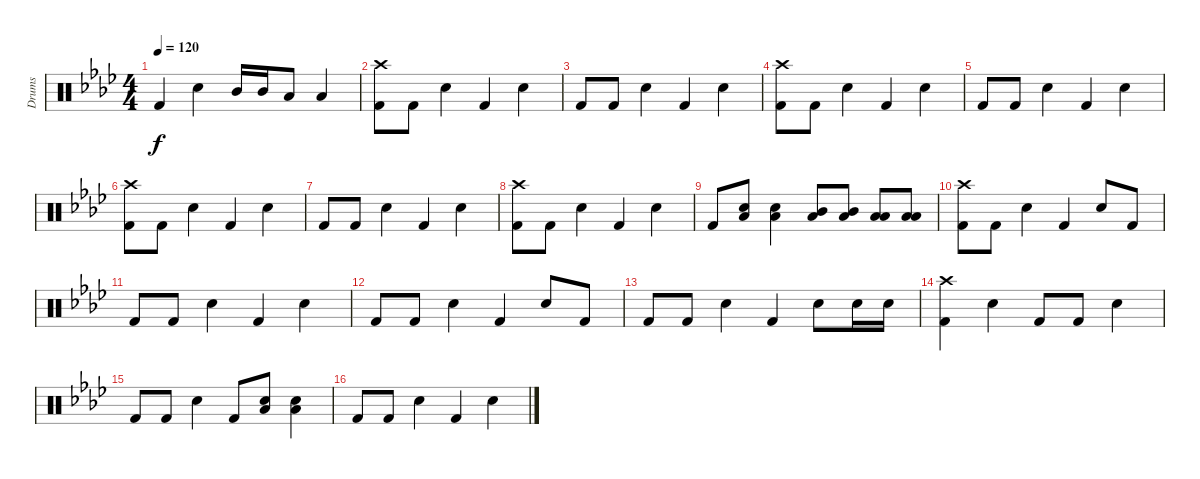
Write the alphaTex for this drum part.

\track ("Drums" "Drums") {instrument percussion}
\staff {score}
\articulation defaults
\ts (4 4)
\tempo 120
\clef neutral
\ks ab "Kick (hit) 2".4{dy f} "Electric Snare (hit)".4 "Mid Tom (hit)".16 "Mid Tom (hit)".16 "Low Tom (hit)".8 "Low Tom (hit)".4
|
("Crash high (hit)" "Kick (hit) 2").8 "Kick (hit) 2".8 "Electric Snare (hit)".4 "Kick (hit) 2".4 "Electric Snare (hit)".4 |
"Kick (hit) 2".8 "Kick (hit) 2".8 "Electric Snare (hit)".4 "Kick (hit) 2".4 "Electric Snare (hit)".4 |
("Crash high (hit)" "Kick (hit) 2").8 "Kick (hit) 2".8 "Electric Snare (hit)".4 "Kick (hit) 2".4 "Electric Snare (hit)".4 |
"Kick (hit) 2".8 "Kick (hit) 2".8 "Electric Snare (hit)".4 "Kick (hit) 2".4 "Electric Snare (hit)".4 |
("Crash high (hit)" "Kick (hit) 2").8 "Kick (hit) 2".8 "Electric Snare (hit)".4 "Kick (hit) 2".4 "Electric Snare (hit)".4 |
"Kick (hit) 2".8 "Kick (hit) 2".8 "Electric Snare (hit)".4 "Kick (hit) 2".4 "Electric Snare (hit)".4 |
("Crash high (hit)" "Kick (hit) 2").8 "Kick (hit) 2".8 "Electric Snare (hit)".4 "Kick (hit) 2".4 "Electric Snare (hit)".4 |
"Kick (hit) 2".8 ("Low Tom (hit)" "Electric Snare (hit)").8 ("Low Tom (hit)" "Electric Snare (hit)").4 ("Low Tom (hit)" "Mid Tom (hit)").8 ("Low Tom (hit)" "Mid Tom (hit)").8 ("Low Tom (hit)" "Low Floor Tom (hit)").8 ("Low Tom (hit)" "Low Floor Tom (hit)").8 |
("Crash high (hit)" "Kick (hit) 2").8 "Kick (hit) 2".8 "Electric Snare (hit)".4 "Kick (hit) 2".4 "Electric Snare (hit)".8 "Kick (hit) 2".8 |
"Kick (hit) 2".8 "Kick (hit) 2".8 "Electric Snare (hit)".4 "Kick (hit) 2".4 "Electric Snare (hit)".4 |
"Kick (hit) 2".8 "Kick (hit) 2".8 "Electric Snare (hit)".4 "Kick (hit) 2".4 "Electric Snare (hit)".8 "Kick (hit) 2".8 |
"Kick (hit) 2".8 "Kick (hit) 2".8 "Electric Snare (hit)".4 "Kick (hit) 2".4 "Electric Snare (hit)".8 "Electric Snare (hit)".16 "Electric Snare (hit)".16 |
("Crash high (hit)" "Kick (hit) 2").4 "Electric Snare (hit)".4 "Kick (hit) 2".8 "Kick (hit) 2".8 "Electric Snare (hit)".4 |
"Kick (hit) 2".8 "Kick (hit) 2".8 "Electric Snare (hit)".4 "Kick (hit) 2".8 ("Low Tom (hit)" "Electric Snare (hit)").8 ("Low Tom (hit)" "Electric Snare (hit)").4 |
"Kick (hit) 2".8 "Kick (hit) 2".8 "Electric Snare (hit)".4 "Kick (hit) 2".4 "Electric Snare (hit)".4
